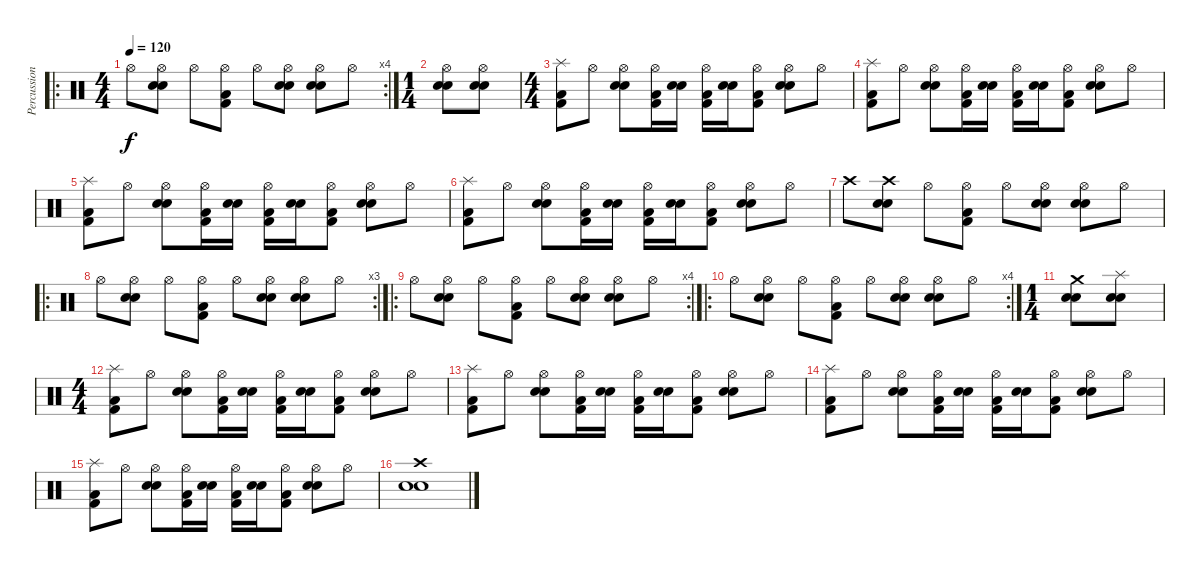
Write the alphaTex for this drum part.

\track ("Percussions" "Percussion") {instrument percussion}
\staff {score}
\articulation defaults
\ro
\rc 4
\ts (4 4)
\tempo 120
\clef neutral
\ks c "Hi-Hat (open)".8{dy f}
("Hi-Hat (open)" "Snare (hit) 2" "Electric Snare (hit)").8 "Hi-Hat (open)".8 ("Hi-Hat (open)" "Kick (hit) 2" "Low Floor Tom (hit)").8 "Hi-Hat (open)".8 ("Hi-Hat (open)" "Snare (hit) 2" "Electric Snare (hit)").8 ("Hi-Hat (open)" "Snare (hit) 2" "Electric Snare (hit)").8 "Hi-Hat (open)".8 |
\ts (1 4)
("Hi-Hat (open)" "Snare (hit) 2" "Electric Snare (hit)").8 ("Hi-Hat (open)" "Snare (hit) 2" "Electric Snare (hit)").8 |
\ts (4 4)
("Splash (hit)" "Kick (hit) 2" "Low Floor Tom (hit)").8 "Hi-Hat (open)".8 ("Hi-Hat (open)" "Snare (hit) 2" "Electric Snare (hit)").8 ("Hi-Hat (open)" "Kick (hit) 2" "Low Floor Tom (hit)").16 ("Snare (hit) 2" "Electric Snare (hit)").16 ("Hi-Hat (open)" "Kick (hit) 2" "Low Floor Tom (hit)").16 ("Snare (hit) 2" "Electric Snare (hit)").16 ("Hi-Hat (open)" "Kick (hit) 2" "Low Floor Tom (hit)").8 ("Hi-Hat (open)" "Snare (hit) 2" "Electric Snare (hit)").8 "Hi-Hat (open)".8 |
("Splash (hit)" "Kick (hit) 2" "Low Floor Tom (hit)").8 "Hi-Hat (open)".8 ("Hi-Hat (open)" "Snare (hit) 2" "Electric Snare (hit)").8 ("Hi-Hat (open)" "Kick (hit) 2" "Low Floor Tom (hit)").16 ("Snare (hit) 2" "Electric Snare (hit)").16 ("Hi-Hat (open)" "Kick (hit) 2" "Low Floor Tom (hit)").16 ("Snare (hit) 2" "Electric Snare (hit)").16 ("Hi-Hat (open)" "Kick (hit) 2" "Low Floor Tom (hit)").8 ("Hi-Hat (open)" "Snare (hit) 2" "Electric Snare (hit)").8 "Hi-Hat (open)".8 |
("Splash (hit)" "Kick (hit) 2" "Low Floor Tom (hit)").8 "Hi-Hat (open)".8 ("Hi-Hat (open)" "Snare (hit) 2" "Electric Snare (hit)").8 ("Hi-Hat (open)" "Kick (hit) 2" "Low Floor Tom (hit)").16 ("Snare (hit) 2" "Electric Snare (hit)").16 ("Hi-Hat (open)" "Kick (hit) 2" "Low Floor Tom (hit)").16 ("Snare (hit) 2" "Electric Snare (hit)").16 ("Hi-Hat (open)" "Kick (hit) 2" "Low Floor Tom (hit)").8 ("Hi-Hat (open)" "Snare (hit) 2" "Electric Snare (hit)").8 "Hi-Hat (open)".8 |
("Splash (hit)" "Kick (hit) 2" "Low Floor Tom (hit)").8 "Hi-Hat (open)".8 ("Hi-Hat (open)" "Snare (hit) 2" "Electric Snare (hit)").8 ("Hi-Hat (open)" "Kick (hit) 2" "Low Floor Tom (hit)").16 ("Snare (hit) 2" "Electric Snare (hit)").16 ("Hi-Hat (open)" "Kick (hit) 2" "Low Floor Tom (hit)").16 ("Snare (hit) 2" "Electric Snare (hit)").16 ("Hi-Hat (open)" "Kick (hit) 2" "Low Floor Tom (hit)").8 ("Hi-Hat (open)" "Snare (hit) 2" "Electric Snare (hit)").8 "Hi-Hat (open)".8 |
"Crash high (hit)".8 ("Crash high (hit)" "Snare (hit) 2" "Electric Snare (hit)").8 "Hi-Hat (open)".8 ("Hi-Hat (open)" "Kick (hit) 2" "Low Floor Tom (hit)").8 "Hi-Hat (open)".8 ("Hi-Hat (open)" "Snare (hit) 2" "Electric Snare (hit)").8 ("Hi-Hat (open)" "Snare (hit) 2" "Electric Snare (hit)").8 "Hi-Hat (open)".8 |
\ro
\rc 3 "Hi-Hat (open)".8
("Hi-Hat (open)" "Snare (hit) 2" "Electric Snare (hit)").8 "Hi-Hat (open)".8 ("Hi-Hat (open)" "Kick (hit) 2" "Low Floor Tom (hit)").8 "Hi-Hat (open)".8 ("Hi-Hat (open)" "Snare (hit) 2" "Electric Snare (hit)").8 ("Hi-Hat (open)" "Snare (hit) 2" "Electric Snare (hit)").8 "Hi-Hat (open)".8 |
\ro
\rc 4 "Hi-Hat (open)".8
("Hi-Hat (open)" "Snare (hit) 2" "Electric Snare (hit)").8 "Hi-Hat (open)".8 ("Hi-Hat (open)" "Kick (hit) 2" "Low Floor Tom (hit)").8 "Hi-Hat (open)".8 ("Hi-Hat (open)" "Snare (hit) 2" "Electric Snare (hit)").8 ("Hi-Hat (open)" "Snare (hit) 2" "Electric Snare (hit)").8 "Hi-Hat (open)".8 |
\ro
\rc 4 "Hi-Hat (open)".8
("Hi-Hat (open)" "Snare (hit) 2" "Electric Snare (hit)").8 "Hi-Hat (open)".8 ("Hi-Hat (open)" "Kick (hit) 2" "Low Floor Tom (hit)").8 "Hi-Hat (open)".8 ("Hi-Hat (open)" "Snare (hit) 2" "Electric Snare (hit)").8 ("Hi-Hat (open)" "Snare (hit) 2" "Electric Snare (hit)").8 "Hi-Hat (open)".8 |
\ts (1 4)
("Crash medium (hit)" "Snare (hit) 2" "Electric Snare (hit)").8 ("Splash (hit)" "Snare (hit) 2" "Electric Snare (hit)").8 |
\ts (4 4)
("Splash (hit)" "Kick (hit) 2" "Low Floor Tom (hit)").8 "Hi-Hat (open)".8 ("Hi-Hat (open)" "Snare (hit) 2" "Electric Snare (hit)").8 ("Hi-Hat (open)" "Kick (hit) 2" "Low Floor Tom (hit)").16 ("Snare (hit) 2" "Electric Snare (hit)").16 ("Hi-Hat (open)" "Kick (hit) 2" "Low Floor Tom (hit)").16 ("Snare (hit) 2" "Electric Snare (hit)").16 ("Hi-Hat (open)" "Kick (hit) 2" "Low Floor Tom (hit)").8 ("Hi-Hat (open)" "Snare (hit) 2" "Electric Snare (hit)").8 "Hi-Hat (open)".8 |
("Splash (hit)" "Kick (hit) 2" "Low Floor Tom (hit)").8 "Hi-Hat (open)".8 ("Hi-Hat (open)" "Snare (hit) 2" "Electric Snare (hit)").8 ("Hi-Hat (open)" "Kick (hit) 2" "Low Floor Tom (hit)").16 ("Snare (hit) 2" "Electric Snare (hit)").16 ("Hi-Hat (open)" "Kick (hit) 2" "Low Floor Tom (hit)").16 ("Snare (hit) 2" "Electric Snare (hit)").16 ("Hi-Hat (open)" "Kick (hit) 2" "Low Floor Tom (hit)").8 ("Hi-Hat (open)" "Snare (hit) 2" "Electric Snare (hit)").8 "Hi-Hat (open)".8 |
("Splash (hit)" "Kick (hit) 2" "Low Floor Tom (hit)").8 "Hi-Hat (open)".8 ("Hi-Hat (open)" "Snare (hit) 2" "Electric Snare (hit)").8 ("Hi-Hat (open)" "Kick (hit) 2" "Low Floor Tom (hit)").16 ("Snare (hit) 2" "Electric Snare (hit)").16 ("Hi-Hat (open)" "Kick (hit) 2" "Low Floor Tom (hit)").16 ("Snare (hit) 2" "Electric Snare (hit)").16 ("Hi-Hat (open)" "Kick (hit) 2" "Low Floor Tom (hit)").8 ("Hi-Hat (open)" "Snare (hit) 2" "Electric Snare (hit)").8 "Hi-Hat (open)".8 |
("Splash (hit)" "Kick (hit) 2" "Low Floor Tom (hit)").8 "Hi-Hat (open)".8 ("Hi-Hat (open)" "Snare (hit) 2" "Electric Snare (hit)").8 ("Hi-Hat (open)" "Kick (hit) 2" "Low Floor Tom (hit)").16 ("Snare (hit) 2" "Electric Snare (hit)").16 ("Hi-Hat (open)" "Kick (hit) 2" "Low Floor Tom (hit)").16 ("Snare (hit) 2" "Electric Snare (hit)").16 ("Hi-Hat (open)" "Kick (hit) 2" "Low Floor Tom (hit)").8 ("Hi-Hat (open)" "Snare (hit) 2" "Electric Snare (hit)").8 "Hi-Hat (open)".8 |
("Crash high (hit)" "Snare (hit) 2" "Electric Snare (hit)").1
